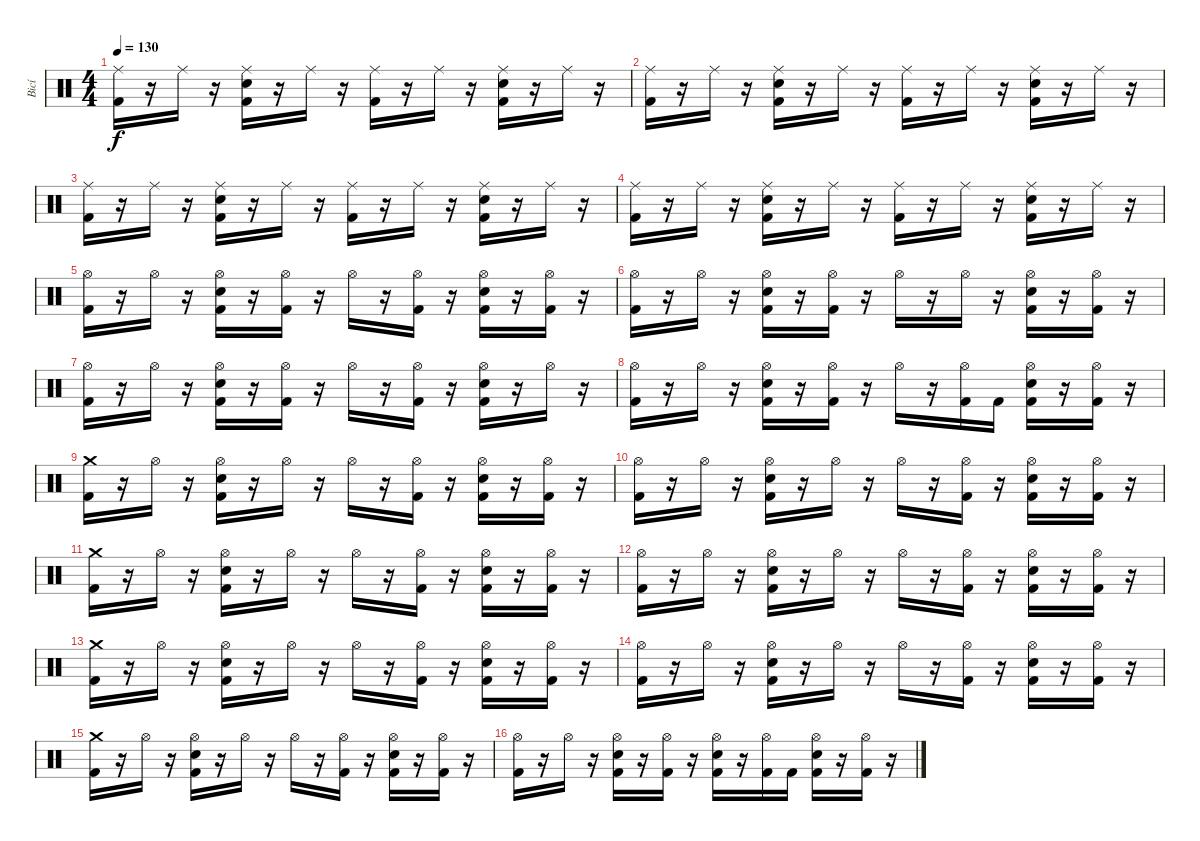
\track ("Bicí" "Bicí") {instrument percussion}
\staff {score}
\articulation defaults
\ts (4 4)
\tempo 130
\clef neutral
\ks c
("Ride (middle)" "Kick (hit) 2").16{dy f} r.16 "Ride (middle)".16 r.16 ("Ride (middle)" "Electric Snare (hit)" "Kick (hit) 2").16 r.16 "Ride (middle)".16 r.16 ("Ride (middle)" "Kick (hit) 2").16 r.16 "Ride (middle)".16 r.16 ("Ride (middle)" "Electric Snare (hit)" "Kick (hit) 2").16 r.16 "Ride (middle)".16 r.16 |
("Ride (middle)" "Kick (hit) 2").16 r.16 "Ride (middle)".16 r.16 ("Ride (middle)" "Electric Snare (hit)" "Kick (hit) 2").16 r.16 "Ride (middle)".16 r.16 ("Ride (middle)" "Kick (hit) 2").16 r.16 "Ride (middle)".16 r.16 ("Ride (middle)" "Electric Snare (hit)" "Kick (hit) 2").16 r.16 "Ride (middle)".16 r.16 |
("Ride (middle)" "Kick (hit) 2").16 r.16 "Ride (middle)".16 r.16 ("Ride (middle)" "Electric Snare (hit)" "Kick (hit) 2").16 r.16 "Ride (middle)".16 r.16 ("Ride (middle)" "Kick (hit) 2").16 r.16 "Ride (middle)".16 r.16 ("Ride (middle)" "Electric Snare (hit)" "Kick (hit) 2").16 r.16 "Ride (middle)".16 r.16 |
("Ride (middle)" "Kick (hit) 2").16 r.16 "Ride (middle)".16 r.16 ("Ride (middle)" "Electric Snare (hit)" "Kick (hit) 2").16 r.16 "Ride (middle)".16 r.16 ("Ride (middle)" "Kick (hit) 2").16 r.16 "Ride (middle)".16 r.16 ("Ride (middle)" "Electric Snare (hit)" "Kick (hit) 2").16 r.16 "Ride (middle)".16 r.16 |
("Hi-Hat (open)" "Kick (hit) 2").16 r.16 "Hi-Hat (open)".16 r.16 ("Hi-Hat (open)" "Electric Snare (hit)" "Kick (hit) 2").16 r.16 ("Hi-Hat (open)" "Kick (hit) 2").16 r.16 "Hi-Hat (open)".16 r.16 ("Hi-Hat (open)" "Kick (hit) 2").16 r.16 ("Hi-Hat (open)" "Electric Snare (hit)" "Kick (hit) 2").16 r.16 ("Hi-Hat (open)" "Kick (hit) 2").16 r.16 |
("Hi-Hat (open)" "Kick (hit) 2").16 r.16 "Hi-Hat (open)".16 r.16 ("Hi-Hat (open)" "Electric Snare (hit)" "Kick (hit) 2").16 r.16 ("Hi-Hat (open)" "Kick (hit) 2").16 r.16 "Hi-Hat (open)".16 r.16 "Hi-Hat (open)".16 r.16 ("Hi-Hat (open)" "Electric Snare (hit)" "Kick (hit) 2").16 r.16 ("Hi-Hat (open)" "Kick (hit) 2").16 r.16 |
("Hi-Hat (open)" "Kick (hit) 2").16 r.16 "Hi-Hat (open)".16 r.16 ("Hi-Hat (open)" "Electric Snare (hit)" "Kick (hit) 2").16 r.16 ("Hi-Hat (open)" "Kick (hit) 2").16 r.16 "Hi-Hat (open)".16 r.16 ("Hi-Hat (open)" "Kick (hit) 2").16 r.16 ("Hi-Hat (open)" "Electric Snare (hit)" "Kick (hit) 2").16 r.16 "Hi-Hat (open)".16 r.16 |
("Hi-Hat (open)" "Kick (hit) 2").16 r.16 "Hi-Hat (open)".16 r.16 ("Hi-Hat (open)" "Electric Snare (hit)" "Kick (hit) 2").16 r.16 ("Hi-Hat (open)" "Kick (hit) 2").16 r.16 "Hi-Hat (open)".16 r.16 ("Hi-Hat (open)" "Kick (hit) 2").16 "Kick (hit) 2".16 ("Hi-Hat (open)" "Electric Snare (hit)" "Kick (hit) 2").16 r.16 ("Hi-Hat (open)" "Kick (hit) 2").16 r.16 |
("Crash medium (hit)" "Kick (hit) 2").16 r.16 "Hi-Hat (open)".16 r.16 ("Hi-Hat (open)" "Electric Snare (hit)" "Kick (hit) 2").16 r.16 "Hi-Hat (open)".16 r.16 "Hi-Hat (open)".16 r.16 ("Hi-Hat (open)" "Kick (hit) 2").16 r.16 ("Hi-Hat (open)" "Electric Snare (hit)" "Kick (hit) 2").16 r.16 ("Hi-Hat (open)" "Kick (hit) 2").16 r.16 |
("Hi-Hat (open)" "Kick (hit) 2").16 r.16 "Hi-Hat (open)".16 r.16 ("Hi-Hat (open)" "Electric Snare (hit)" "Kick (hit) 2").16 r.16 "Hi-Hat (open)".16 r.16 "Hi-Hat (open)".16 r.16 ("Hi-Hat (open)" "Kick (hit) 2").16 r.16 ("Hi-Hat (open)" "Electric Snare (hit)" "Kick (hit) 2").16 r.16 ("Hi-Hat (open)" "Kick (hit) 2").16 r.16 |
("Crash medium (hit)" "Kick (hit) 2").16 r.16 "Hi-Hat (open)".16 r.16 ("Hi-Hat (open)" "Electric Snare (hit)" "Kick (hit) 2").16 r.16 "Hi-Hat (open)".16 r.16 "Hi-Hat (open)".16 r.16 ("Hi-Hat (open)" "Kick (hit) 2").16 r.16 ("Hi-Hat (open)" "Electric Snare (hit)" "Kick (hit) 2").16 r.16 ("Hi-Hat (open)" "Kick (hit) 2").16 r.16 |
("Hi-Hat (open)" "Kick (hit) 2").16 r.16 "Hi-Hat (open)".16 r.16 ("Hi-Hat (open)" "Electric Snare (hit)" "Kick (hit) 2").16 r.16 "Hi-Hat (open)".16 r.16 "Hi-Hat (open)".16 r.16 ("Hi-Hat (open)" "Kick (hit) 2").16 r.16 ("Hi-Hat (open)" "Electric Snare (hit)" "Kick (hit) 2").16 r.16 ("Hi-Hat (open)" "Kick (hit) 2").16 r.16 |
("Crash medium (hit)" "Kick (hit) 2").16 r.16 "Hi-Hat (open)".16 r.16 ("Hi-Hat (open)" "Electric Snare (hit)" "Kick (hit) 2").16 r.16 "Hi-Hat (open)".16 r.16 "Hi-Hat (open)".16 r.16 ("Hi-Hat (open)" "Kick (hit) 2").16 r.16 ("Hi-Hat (open)" "Electric Snare (hit)" "Kick (hit) 2").16 r.16 ("Hi-Hat (open)" "Kick (hit) 2").16 r.16 |
("Hi-Hat (open)" "Kick (hit) 2").16 r.16 "Hi-Hat (open)".16 r.16 ("Hi-Hat (open)" "Electric Snare (hit)" "Kick (hit) 2").16 r.16 "Hi-Hat (open)".16 r.16 "Hi-Hat (open)".16 r.16 ("Hi-Hat (open)" "Kick (hit) 2").16 r.16 ("Hi-Hat (open)" "Electric Snare (hit)" "Kick (hit) 2").16 r.16 ("Hi-Hat (open)" "Kick (hit) 2").16 r.16 |
("Crash medium (hit)" "Kick (hit) 2").16 r.16 "Hi-Hat (open)".16 r.16 ("Hi-Hat (open)" "Electric Snare (hit)" "Kick (hit) 2").16 r.16 "Hi-Hat (open)".16 r.16 "Hi-Hat (open)".16 r.16 ("Hi-Hat (open)" "Kick (hit) 2").16 r.16 ("Hi-Hat (open)" "Electric Snare (hit)" "Kick (hit) 2").16 r.16 ("Hi-Hat (open)" "Kick (hit) 2").16 r.16 |
("Hi-Hat (open)" "Kick (hit) 2").16 r.16 "Hi-Hat (open)".16 r.16 ("Hi-Hat (open)" "Electric Snare (hit)" "Kick (hit) 2").16 r.16 ("Hi-Hat (open)" "Kick (hit) 2").16 r.16 ("Hi-Hat (open)" "Electric Snare (hit)" "Kick (hit) 2").16 r.16 ("Hi-Hat (open)" "Kick (hit) 2").16 "Kick (hit) 2".16 ("Hi-Hat (open)" "Electric Snare (hit)" "Kick (hit) 2").16 r.16 ("Hi-Hat (open)" "Kick (hit) 2").16 r.16
